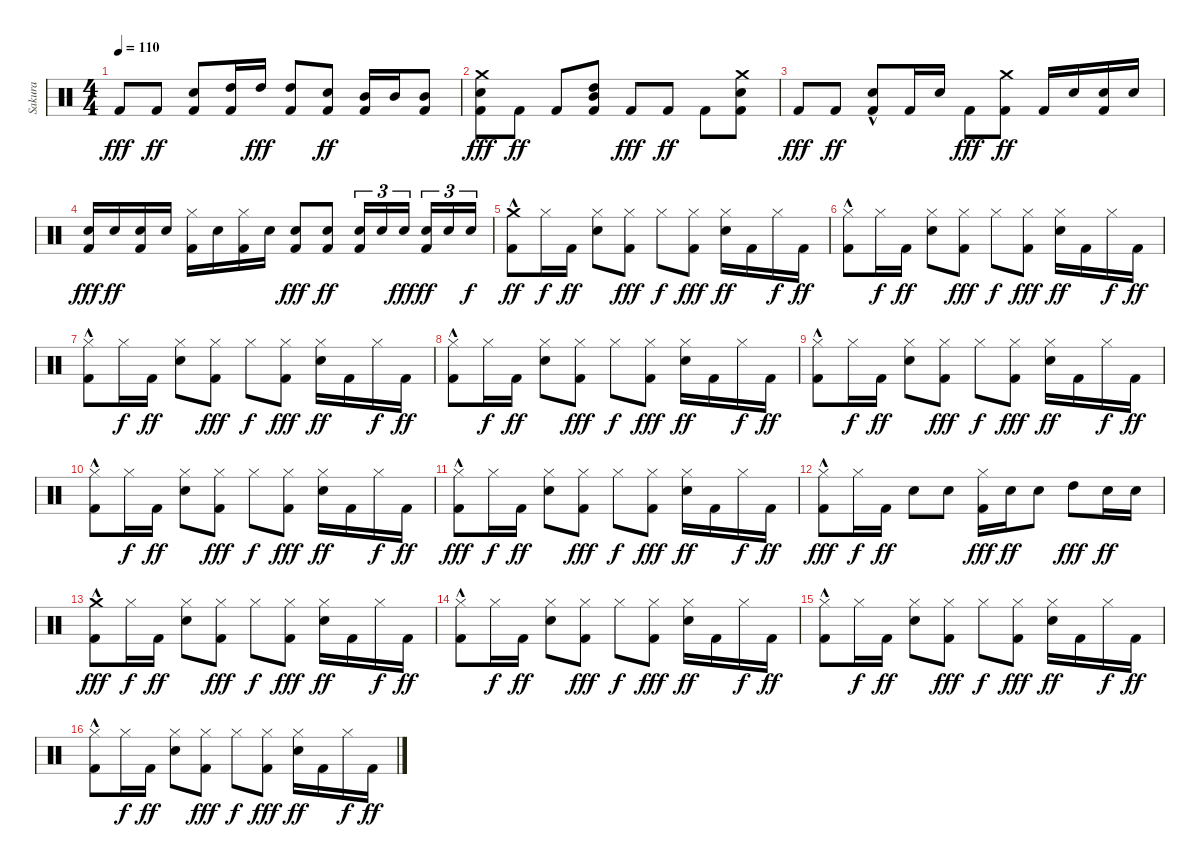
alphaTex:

\track ("Sakura" "Sakura") {instrument percussion}
\staff {score}
\articulation defaults
\ts (4 4)
\tempo 110
\clef neutral
\ks c "Kick (hit) 2".8{dy fff} "Kick (hit) 2".8{dy ff}
("Snare (hit) 2" "Kick (hit) 2").8 ("High Tom (hit)" "Kick (hit) 2").16 "High Tom (hit)".16{dy fff} ("High Tom (hit)" "Kick (hit) 2").8 ("Electric Snare (hit)" "Kick (hit) 2").8{dy ff} ("Mid Tom (hit)" "Kick (hit) 2").16 "Mid Tom (hit)".16 ("Mid Tom (hit)" "Kick (hit) 2").8 |
("Crash medium (hit)" "Snare (hit) 2" "Kick (hit) 2").8{dy fff} "Kick (hit) 2".8{dy ff} "Kick (hit) 2".8 ("High Tom (hit)" "Mid Tom (hit)" "Kick (hit) 2").8 "Kick (hit) 2".8{dy fff} "Kick (hit) 2".8{dy ff} "Kick (hit) 2".8 ("Crash medium (hit)" "Snare (hit) 2" "Kick (hit) 2").8 |
"Kick (hit) 2".8{dy fff} "Kick (hit) 2".8{dy ff} ("Snare (hit) 2"{hac} "Kick (hit) 2").8 "Kick (hit) 2".16 "Snare (hit) 2".16 "Kick (hit) 2".8{dy fff} ("Crash medium (hit)" "Kick (hit) 2").8{dy ff} "Kick (hit) 2".16 "Snare (hit) 2".16 ("Snare (hit) 2" "Kick (hit) 2").16 "Snare (hit) 2".16 |
("Snare (hit) 2" "Kick (hit) 2").16{dy fff} "Snare (hit) 2".16{dy ff} ("Snare (hit) 2" "Kick (hit) 2").16 "Snare (hit) 2".16 ("Hi-Hat (closed)" "Kick (hit) 2").16 "Snare (hit) 2".16 ("Hi-Hat (closed)" "Kick (hit) 2").16 "Snare (hit) 2".16 ("Snare (hit) 2" "Kick (hit) 2").8{dy fff} ("Snare (hit) 2" "Kick (hit) 2").8{dy ff} ("Snare (hit) 2" "Kick (hit) 2").16{tu (3 2)} "Snare (hit) 2".16{tu (3 2)} "Snare (hit) 2".16{tu (3 2) dy fff} ("Snare (hit) 2" "Kick (hit) 2").16{tu (3 2) dy ff} "Snare (hit) 2".16{tu (3 2)} "Snare (hit) 2".16{tu (3 2) dy f} |
("Kick (hit) 2"{hac} "Crash medium (hit)").8{dy ff} "Hi-Hat (closed)".16{dy f} "Kick (hit) 2".16{dy ff} ("Snare (hit) 2" "Hi-Hat (closed)").8 ("Kick (hit) 2" "Hi-Hat (closed)").8{dy fff} "Hi-Hat (closed)".8{dy f} ("Kick (hit) 2" "Hi-Hat (closed)").8{dy fff} ("Snare (hit) 2" "Hi-Hat (closed)").16{dy ff} "Kick (hit) 2".16 "Hi-Hat (closed)".16{dy f} "Kick (hit) 2".16{dy ff} |
("Kick (hit) 2"{hac} "Hi-Hat (closed)").8 "Hi-Hat (closed)".16{dy f} "Kick (hit) 2".16{dy ff} ("Snare (hit) 2" "Hi-Hat (closed)").8 ("Kick (hit) 2" "Hi-Hat (closed)").8{dy fff} "Hi-Hat (closed)".8{dy f} ("Kick (hit) 2" "Hi-Hat (closed)").8{dy fff} ("Snare (hit) 2" "Hi-Hat (closed)").16{dy ff} "Kick (hit) 2".16 "Hi-Hat (closed)".16{dy f} "Kick (hit) 2".16{dy ff} |
("Kick (hit) 2"{hac} "Hi-Hat (closed)").8 "Hi-Hat (closed)".16{dy f} "Kick (hit) 2".16{dy ff} ("Snare (hit) 2" "Hi-Hat (closed)").8 ("Kick (hit) 2" "Hi-Hat (closed)").8{dy fff} "Hi-Hat (closed)".8{dy f} ("Kick (hit) 2" "Hi-Hat (closed)").8{dy fff} ("Snare (hit) 2" "Hi-Hat (closed)").16{dy ff} "Kick (hit) 2".16 "Hi-Hat (closed)".16{dy f} "Kick (hit) 2".16{dy ff} |
("Kick (hit) 2"{hac} "Hi-Hat (closed)").8 "Hi-Hat (closed)".16{dy f} "Kick (hit) 2".16{dy ff} ("Snare (hit) 2" "Hi-Hat (closed)").8 ("Kick (hit) 2" "Hi-Hat (closed)").8{dy fff} "Hi-Hat (closed)".8{dy f} ("Kick (hit) 2" "Hi-Hat (closed)").8{dy fff} ("Snare (hit) 2" "Hi-Hat (closed)").16{dy ff} "Kick (hit) 2".16 "Hi-Hat (closed)".16{dy f} "Kick (hit) 2".16{dy ff} |
("Kick (hit) 2"{hac} "Hi-Hat (closed)").8 "Hi-Hat (closed)".16{dy f} "Kick (hit) 2".16{dy ff} ("Snare (hit) 2" "Hi-Hat (closed)").8 ("Kick (hit) 2" "Hi-Hat (closed)").8{dy fff} "Hi-Hat (closed)".8{dy f} ("Kick (hit) 2" "Hi-Hat (closed)").8{dy fff} ("Snare (hit) 2" "Hi-Hat (closed)").16{dy ff} "Kick (hit) 2".16 "Hi-Hat (closed)".16{dy f} "Kick (hit) 2".16{dy ff} |
("Kick (hit) 2"{hac} "Hi-Hat (closed)").8 "Hi-Hat (closed)".16{dy f} "Kick (hit) 2".16{dy ff} ("Snare (hit) 2" "Hi-Hat (closed)").8 ("Kick (hit) 2" "Hi-Hat (closed)").8{dy fff} "Hi-Hat (closed)".8{dy f} ("Kick (hit) 2" "Hi-Hat (closed)").8{dy fff} ("Snare (hit) 2" "Hi-Hat (closed)").16{dy ff} "Kick (hit) 2".16 "Hi-Hat (closed)".16{dy f} "Kick (hit) 2".16{dy ff} |
("Hi-Hat (closed)" "Kick (hit) 2"{hac}).8{dy fff} "Hi-Hat (closed)".16{dy f} "Kick (hit) 2".16{dy ff} ("Hi-Hat (closed)" "Snare (hit) 2").8 ("Hi-Hat (closed)" "Kick (hit) 2").8{dy fff} "Hi-Hat (closed)".8{dy f} ("Hi-Hat (closed)" "Kick (hit) 2").8{dy fff} ("Snare (hit) 2" "Hi-Hat (closed)").16{dy ff} "Kick (hit) 2".16 "Hi-Hat (closed)".16{dy f} "Kick (hit) 2".16{dy ff} |
("Kick (hit) 2"{hac} "Hi-Hat (closed)").8{dy fff} "Hi-Hat (closed)".16{dy f} "Kick (hit) 2".16{dy ff} "Snare (hit) 2".8 "Snare (hit) 2".8 ("Kick (hit) 2" "Hi-Hat (closed)").16{dy fff} "Snare (hit) 2".16{dy ff} "Snare (hit) 2".8 "High Tom (hit)".8{dy fff} "Snare (hit) 2".16{dy ff} "Snare (hit) 2".16 |
("Kick (hit) 2"{hac} "Crash medium (hit)").8{dy fff} "Hi-Hat (closed)".16{dy f} "Kick (hit) 2".16{dy ff} ("Snare (hit) 2" "Hi-Hat (closed)").8 ("Kick (hit) 2" "Hi-Hat (closed)").8{dy fff} "Hi-Hat (closed)".8{dy f} ("Kick (hit) 2" "Hi-Hat (closed)").8{dy fff} ("Snare (hit) 2" "Hi-Hat (closed)").16{dy ff} "Kick (hit) 2".16 "Hi-Hat (closed)".16{dy f} "Kick (hit) 2".16{dy ff} |
("Kick (hit) 2"{hac} "Hi-Hat (closed)").8 "Hi-Hat (closed)".16{dy f} "Kick (hit) 2".16{dy ff} ("Snare (hit) 2" "Hi-Hat (closed)").8 ("Kick (hit) 2" "Hi-Hat (closed)").8{dy fff} "Hi-Hat (closed)".8{dy f} ("Kick (hit) 2" "Hi-Hat (closed)").8{dy fff} ("Snare (hit) 2" "Hi-Hat (closed)").16{dy ff} "Kick (hit) 2".16 "Hi-Hat (closed)".16{dy f} "Kick (hit) 2".16{dy ff} |
("Kick (hit) 2"{hac} "Hi-Hat (closed)").8 "Hi-Hat (closed)".16{dy f} "Kick (hit) 2".16{dy ff} ("Snare (hit) 2" "Hi-Hat (closed)").8 ("Kick (hit) 2" "Hi-Hat (closed)").8{dy fff} "Hi-Hat (closed)".8{dy f} ("Kick (hit) 2" "Hi-Hat (closed)").8{dy fff} ("Snare (hit) 2" "Hi-Hat (closed)").16{dy ff} "Kick (hit) 2".16 "Hi-Hat (closed)".16{dy f} "Kick (hit) 2".16{dy ff} |
("Kick (hit) 2"{hac} "Hi-Hat (closed)").8 "Hi-Hat (closed)".16{dy f} "Kick (hit) 2".16{dy ff} ("Snare (hit) 2" "Hi-Hat (closed)").8 ("Kick (hit) 2" "Hi-Hat (closed)").8{dy fff} "Hi-Hat (closed)".8{dy f} ("Kick (hit) 2" "Hi-Hat (closed)").8{dy fff} ("Snare (hit) 2" "Hi-Hat (closed)").16{dy ff} "Kick (hit) 2".16 "Hi-Hat (closed)".16{dy f} "Kick (hit) 2".16{dy ff}
